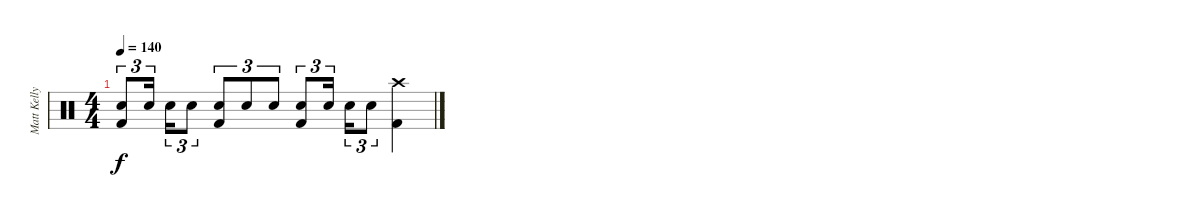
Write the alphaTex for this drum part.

\track ("Matt Kelly (Drums)" "Matt Kelly") {instrument percussion}
\staff {score}
\articulation defaults
\ts (4 4)
\tempo 140
\clef neutral
\ks c
("Electric Snare (hit)" "Kick (hit) 2").8{tu (3 2) dy f} "Electric Snare (hit)".16{tu (3 2) beam splitsecondary} "Electric Snare (hit)".16{tu (3 2)} "Electric Snare (hit)".8{tu (3 2)} ("Electric Snare (hit)" "Kick (hit) 2").8{tu (3 2)} "Electric Snare (hit)".8{tu (3 2)} "Electric Snare (hit)".8{tu (3 2)} ("Electric Snare (hit)" "Kick (hit) 2").8{tu (3 2)} "Electric Snare (hit)".16{tu (3 2) beam splitsecondary} "Electric Snare (hit)".16{tu (3 2)} "Electric Snare (hit)".8{tu (3 2)} ("Crash high (hit)" "Kick (hit) 2").4
